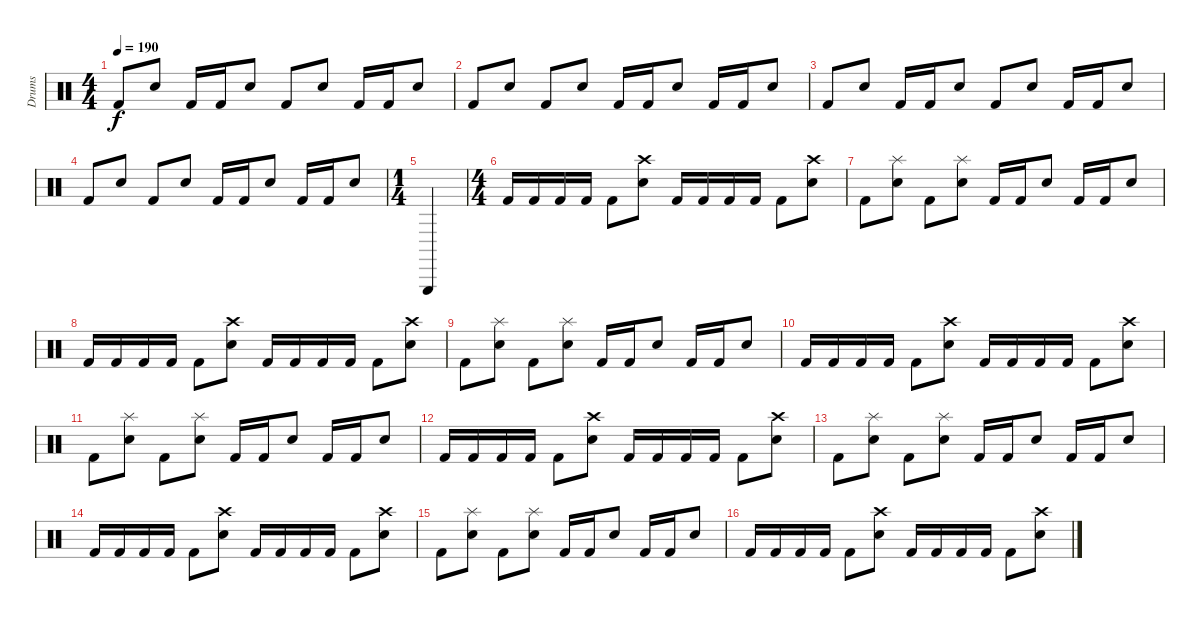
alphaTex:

\track ("Drums" "Drums") {instrument percussion}
\staff {score}
\articulation defaults
\ts (4 4)
\tempo 190
\clef neutral
\ks c "Kick (hit) 2".8{dy f} "Snare (hit) 2".8 "Kick (hit) 2".16 "Kick (hit) 2".16 "Snare (hit) 2".8 "Kick (hit) 2".8 "Snare (hit) 2".8 "Kick (hit) 2".16 "Kick (hit) 2".16 "Snare (hit) 2".8
|
"Kick (hit) 2".8 "Snare (hit) 2".8 "Kick (hit) 2".8 "Snare (hit) 2".8 "Kick (hit) 2".16 "Kick (hit) 2".16 "Snare (hit) 2".8 "Kick (hit) 2".16 "Kick (hit) 2".16 "Snare (hit) 2".8 |
"Kick (hit) 2".8 "Snare (hit) 2".8 "Kick (hit) 2".16 "Kick (hit) 2".16 "Snare (hit) 2".8 "Kick (hit) 2".8 "Snare (hit) 2".8 "Kick (hit) 2".16 "Kick (hit) 2".16 "Snare (hit) 2".8 |
"Kick (hit) 2".8 "Snare (hit) 2".8 "Kick (hit) 2".8 "Snare (hit) 2".8 "Kick (hit) 2".16 "Kick (hit) 2".16 "Snare (hit) 2".8 "Kick (hit) 2".16 "Kick (hit) 2".16 "Snare (hit) 2".8 |
\ts (1 4)
"Triangle (hit)".4 |
\ts (4 4)
"Kick (hit) 2".16 "Kick (hit) 2".16 "Kick (hit) 2".16 "Kick (hit) 2".16 "Kick (hit) 2".8 ("Crash high (hit)" "Snare (hit) 2").8 "Kick (hit) 2".16 "Kick (hit) 2".16 "Kick (hit) 2".16 "Kick (hit) 2".16 "Kick (hit) 2".8 ("Crash high (hit)" "Snare (hit) 2").8 |
"Kick (hit) 2".8 ("Splash (hit)" "Snare (hit) 2").8 "Kick (hit) 2".8 ("Splash (hit)" "Snare (hit) 2").8 "Kick (hit) 2".16 "Kick (hit) 2".16 "Snare (hit) 2".8 "Kick (hit) 2".16 "Kick (hit) 2".16 "Snare (hit) 2".8 |
"Kick (hit) 2".16 "Kick (hit) 2".16 "Kick (hit) 2".16 "Kick (hit) 2".16 "Kick (hit) 2".8 ("Crash high (hit)" "Snare (hit) 2").8 "Kick (hit) 2".16 "Kick (hit) 2".16 "Kick (hit) 2".16 "Kick (hit) 2".16 "Kick (hit) 2".8 ("Crash high (hit)" "Snare (hit) 2").8 |
"Kick (hit) 2".8 ("Splash (hit)" "Snare (hit) 2").8 "Kick (hit) 2".8 ("Splash (hit)" "Snare (hit) 2").8 "Kick (hit) 2".16 "Kick (hit) 2".16 "Snare (hit) 2".8 "Kick (hit) 2".16 "Kick (hit) 2".16 "Snare (hit) 2".8 |
"Kick (hit) 2".16 "Kick (hit) 2".16 "Kick (hit) 2".16 "Kick (hit) 2".16 "Kick (hit) 2".8 ("Crash high (hit)" "Snare (hit) 2").8 "Kick (hit) 2".16 "Kick (hit) 2".16 "Kick (hit) 2".16 "Kick (hit) 2".16 "Kick (hit) 2".8 ("Crash high (hit)" "Snare (hit) 2").8 |
"Kick (hit) 2".8 ("Splash (hit)" "Snare (hit) 2").8 "Kick (hit) 2".8 ("Splash (hit)" "Snare (hit) 2").8 "Kick (hit) 2".16 "Kick (hit) 2".16 "Snare (hit) 2".8 "Kick (hit) 2".16 "Kick (hit) 2".16 "Snare (hit) 2".8 |
"Kick (hit) 2".16 "Kick (hit) 2".16 "Kick (hit) 2".16 "Kick (hit) 2".16 "Kick (hit) 2".8 ("Crash high (hit)" "Snare (hit) 2").8 "Kick (hit) 2".16 "Kick (hit) 2".16 "Kick (hit) 2".16 "Kick (hit) 2".16 "Kick (hit) 2".8 ("Crash high (hit)" "Snare (hit) 2").8 |
"Kick (hit) 2".8 ("Splash (hit)" "Snare (hit) 2").8 "Kick (hit) 2".8 ("Splash (hit)" "Snare (hit) 2").8 "Kick (hit) 2".16 "Kick (hit) 2".16 "Snare (hit) 2".8 "Kick (hit) 2".16 "Kick (hit) 2".16 "Snare (hit) 2".8 |
"Kick (hit) 2".16 "Kick (hit) 2".16 "Kick (hit) 2".16 "Kick (hit) 2".16 "Kick (hit) 2".8 ("Crash high (hit)" "Snare (hit) 2").8 "Kick (hit) 2".16 "Kick (hit) 2".16 "Kick (hit) 2".16 "Kick (hit) 2".16 "Kick (hit) 2".8 ("Crash high (hit)" "Snare (hit) 2").8 |
"Kick (hit) 2".8 ("Splash (hit)" "Snare (hit) 2").8 "Kick (hit) 2".8 ("Splash (hit)" "Snare (hit) 2").8 "Kick (hit) 2".16 "Kick (hit) 2".16 "Snare (hit) 2".8 "Kick (hit) 2".16 "Kick (hit) 2".16 "Snare (hit) 2".8 |
"Kick (hit) 2".16 "Kick (hit) 2".16 "Kick (hit) 2".16 "Kick (hit) 2".16 "Kick (hit) 2".8 ("Crash high (hit)" "Snare (hit) 2").8 "Kick (hit) 2".16 "Kick (hit) 2".16 "Kick (hit) 2".16 "Kick (hit) 2".16 "Kick (hit) 2".8 ("Crash high (hit)" "Snare (hit) 2").8
